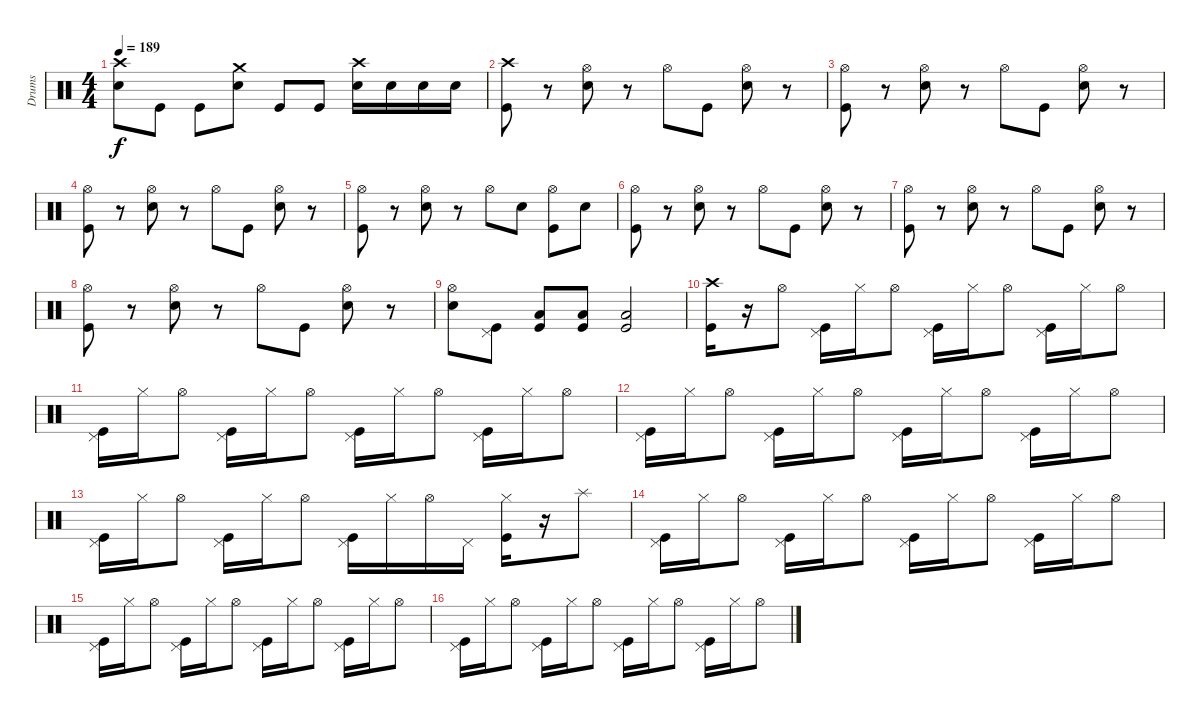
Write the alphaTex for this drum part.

\track ("Drums" "Drums") {instrument percussion}
\staff {score}
\articulation defaults
\ts (4 4)
\tempo 189
\clef neutral
\ks c
("Crash high (hit)" "Electric Snare (hit)").8{dy f} "Kick (hit)".8 "Kick (hit)".8 ("Crash medium (hit)" "Electric Snare (hit)").8 "Kick (hit)".8 "Kick (hit)".8 ("Crash high (hit)" "Electric Snare (hit)").16 "Electric Snare (hit)".16 "Electric Snare (hit)".16 "Electric Snare (hit)".16 |
("Crash high (hit)" "Kick (hit)").8 r.8 ("Hi-Hat (open)" "Electric Snare (hit)").8 r.8 "Hi-Hat (open)".8 "Kick (hit)".8 ("Hi-Hat (open)" "Electric Snare (hit)").8 r.8 |
("Hi-Hat (open)" "Kick (hit)").8 r.8 ("Hi-Hat (open)" "Electric Snare (hit)").8 r.8 "Hi-Hat (open)".8 "Kick (hit)".8 ("Hi-Hat (open)" "Electric Snare (hit)").8 r.8 |
("Hi-Hat (open)" "Kick (hit)").8 r.8 ("Hi-Hat (open)" "Electric Snare (hit)").8 r.8 "Hi-Hat (open)".8 "Kick (hit)".8 ("Hi-Hat (open)" "Electric Snare (hit)").8 r.8 |
("Hi-Hat (open)" "Kick (hit)").8 r.8 ("Hi-Hat (open)" "Electric Snare (hit)").8 r.8 "Hi-Hat (open)".8 "Electric Snare (hit)".8 ("Hi-Hat (open)" "Kick (hit)").8 "Electric Snare (hit)".8 |
("Hi-Hat (open)" "Kick (hit)").8 r.8 ("Hi-Hat (open)" "Electric Snare (hit)").8 r.8 "Hi-Hat (open)".8 "Kick (hit)".8 ("Hi-Hat (open)" "Electric Snare (hit)").8 r.8 |
("Hi-Hat (open)" "Kick (hit)").8 r.8 ("Hi-Hat (open)" "Electric Snare (hit)").8 r.8 "Hi-Hat (open)".8 "Kick (hit)".8 ("Hi-Hat (open)" "Electric Snare (hit)").8 r.8 |
("Hi-Hat (open)" "Kick (hit)").8 r.8 ("Hi-Hat (open)" "Electric Snare (hit)").8 r.8 "Hi-Hat (open)".8 "Kick (hit)".8 ("Hi-Hat (open)" "Electric Snare (hit)").8 r.8 |
("Hi-Hat (open)" "Electric Snare (hit)").8 ("Pedal Hi-Hat (hit)" "Kick (hit)").8 ("Low Floor Tom (hit)" "Kick (hit)").8 ("Low Floor Tom (hit)" "Kick (hit)").8 ("Low Floor Tom (hit)" "Kick (hit)").2 |
("Crash high (hit)" "Kick (hit)").16 r.16 "Hi-Hat (open)".8 ("Pedal Hi-Hat (hit)" "Kick (hit)").16 "Hi-Hat (closed)".16 "Hi-Hat (open)".8 ("Pedal Hi-Hat (hit)" "Kick (hit)").16 "Hi-Hat (closed)".16 "Hi-Hat (open)".8 ("Pedal Hi-Hat (hit)" "Kick (hit)").16 "Hi-Hat (closed)".16 "Hi-Hat (open)".8 |
("Pedal Hi-Hat (hit)" "Kick (hit)").16 "Hi-Hat (closed)".16 "Hi-Hat (open)".8 ("Pedal Hi-Hat (hit)" "Kick (hit)").16 "Hi-Hat (closed)".16 "Hi-Hat (open)".8 ("Pedal Hi-Hat (hit)" "Kick (hit)").16 "Hi-Hat (closed)".16 "Hi-Hat (open)".8 ("Pedal Hi-Hat (hit)" "Kick (hit)").16 "Hi-Hat (closed)".16 "Hi-Hat (open)".8 |
("Pedal Hi-Hat (hit)" "Kick (hit)").16 "Hi-Hat (closed)".16 "Hi-Hat (open)".8 ("Pedal Hi-Hat (hit)" "Kick (hit)").16 "Hi-Hat (closed)".16 "Hi-Hat (open)".8 ("Pedal Hi-Hat (hit)" "Kick (hit)").16 "Hi-Hat (closed)".16 "Hi-Hat (open)".8 ("Pedal Hi-Hat (hit)" "Kick (hit)").16 "Hi-Hat (closed)".16 "Hi-Hat (open)".8 |
("Pedal Hi-Hat (hit)" "Kick (hit)").16 "Hi-Hat (closed)".16 "Hi-Hat (open)".8 ("Pedal Hi-Hat (hit)" "Kick (hit)").16 "Hi-Hat (closed)".16 "Hi-Hat (open)".8 ("Pedal Hi-Hat (hit)" "Kick (hit)").16 "Hi-Hat (closed)".16 "Hi-Hat (open)".16 "Pedal Hi-Hat (hit)".16 ("Hi-Hat (closed)" "Kick (hit)").16 r.16 "Splash (hit)".8 |
("Pedal Hi-Hat (hit)" "Kick (hit)").16 "Hi-Hat (closed)".16 "Hi-Hat (open)".8 ("Pedal Hi-Hat (hit)" "Kick (hit)").16 "Hi-Hat (closed)".16 "Hi-Hat (open)".8 ("Pedal Hi-Hat (hit)" "Kick (hit)").16 "Hi-Hat (closed)".16 "Hi-Hat (open)".8 ("Pedal Hi-Hat (hit)" "Kick (hit)").16 "Hi-Hat (closed)".16 "Hi-Hat (open)".8 |
("Pedal Hi-Hat (hit)" "Kick (hit)").16 "Hi-Hat (closed)".16 "Hi-Hat (open)".8 ("Pedal Hi-Hat (hit)" "Kick (hit)").16 "Hi-Hat (closed)".16 "Hi-Hat (open)".8 ("Pedal Hi-Hat (hit)" "Kick (hit)").16 "Hi-Hat (closed)".16 "Hi-Hat (open)".8 ("Pedal Hi-Hat (hit)" "Kick (hit)").16 "Hi-Hat (closed)".16 "Hi-Hat (open)".8 |
("Pedal Hi-Hat (hit)" "Kick (hit)").16 "Hi-Hat (closed)".16 "Hi-Hat (open)".8 ("Pedal Hi-Hat (hit)" "Kick (hit)").16 "Hi-Hat (closed)".16 "Hi-Hat (open)".8 ("Pedal Hi-Hat (hit)" "Kick (hit)").16 "Hi-Hat (closed)".16 "Hi-Hat (open)".8 ("Pedal Hi-Hat (hit)" "Kick (hit)").16 "Hi-Hat (closed)".16 "Hi-Hat (open)".8
